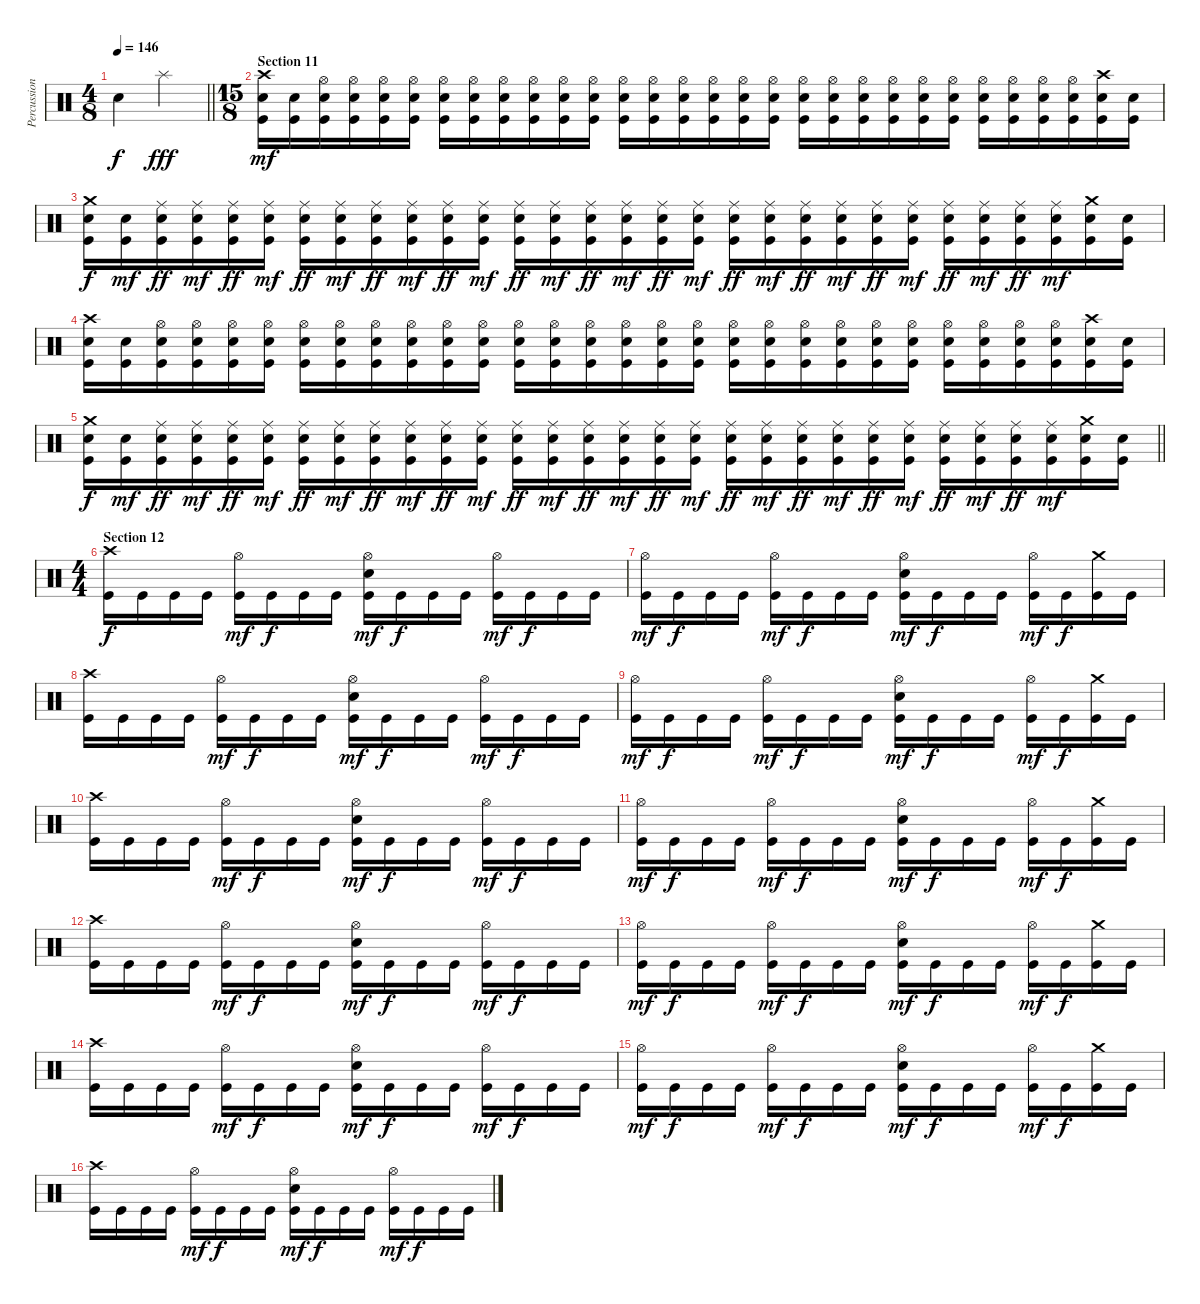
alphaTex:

\track ("Percussion" "Percussion") {instrument percussion}
\staff {score}
\articulation defaults
\ts (4 8)
\tempo 146
\clef neutral
\barLineRight lightlight
\ks c "Snare (hit)"{t}.4{dy f} "Splash (hit)".4{dy fff}
|
\ts (15 8)
\section ("" "Section 11")
("Crash high (hit)" "Electric Snare (hit)" "Kick (hit)").16{dy mf} ("Electric Snare (hit)" "Kick (hit)").16 ("Hi-Hat (open)" "Electric Snare (hit)" "Kick (hit)").16 ("Hi-Hat (open)" "Electric Snare (hit)" "Kick (hit)").16 ("Hi-Hat (open)" "Electric Snare (hit)" "Kick (hit)").16 ("Hi-Hat (open)" "Electric Snare (hit)" "Kick (hit)").16 ("Hi-Hat (open)" "Electric Snare (hit)" "Kick (hit)").16 ("Hi-Hat (open)" "Electric Snare (hit)" "Kick (hit)").16 ("Hi-Hat (open)" "Electric Snare (hit)" "Kick (hit)").16 ("Hi-Hat (open)" "Electric Snare (hit)" "Kick (hit)").16 ("Hi-Hat (open)" "Electric Snare (hit)" "Kick (hit)").16 ("Hi-Hat (open)" "Electric Snare (hit)" "Kick (hit)").16 ("Hi-Hat (open)" "Electric Snare (hit)" "Kick (hit)").16 ("Hi-Hat (open)" "Electric Snare (hit)" "Kick (hit)").16 ("Hi-Hat (open)" "Electric Snare (hit)" "Kick (hit)").16 ("Hi-Hat (open)" "Electric Snare (hit)" "Kick (hit)").16 ("Hi-Hat (open)" "Electric Snare (hit)" "Kick (hit)").16 ("Hi-Hat (open)" "Electric Snare (hit)" "Kick (hit)").16 ("Hi-Hat (open)" "Electric Snare (hit)" "Kick (hit)").16 ("Hi-Hat (open)" "Electric Snare (hit)" "Kick (hit)").16 ("Hi-Hat (open)" "Electric Snare (hit)" "Kick (hit)").16 ("Hi-Hat (open)" "Electric Snare (hit)" "Kick (hit)").16 ("Hi-Hat (open)" "Electric Snare (hit)" "Kick (hit)").16 ("Hi-Hat (open)" "Electric Snare (hit)" "Kick (hit)").16 ("Hi-Hat (open)" "Electric Snare (hit)" "Kick (hit)").16 ("Hi-Hat (open)" "Electric Snare (hit)" "Kick (hit)").16 ("Hi-Hat (open)" "Electric Snare (hit)" "Kick (hit)").16 ("Hi-Hat (open)" "Electric Snare (hit)" "Kick (hit)").16 ("Crash high (hit)" "Electric Snare (hit)" "Kick (hit)").16 ("Electric Snare (hit)" "Kick (hit)").16 |
("Crash medium (hit)" "Electric Snare (hit)" "Kick (hit)").16{dy f} ("Electric Snare (hit)" "Kick (hit)").16{dy mf} ("Ride (middle)" "Electric Snare (hit)" "Kick (hit)").16{dy ff} ("Ride (middle)" "Electric Snare (hit)" "Kick (hit)").16{dy mf} ("Ride (middle)" "Electric Snare (hit)" "Kick (hit)").16{dy ff} ("Ride (middle)" "Electric Snare (hit)" "Kick (hit)").16{dy mf} ("Ride (middle)" "Electric Snare (hit)" "Kick (hit)").16{dy ff} ("Ride (middle)" "Electric Snare (hit)" "Kick (hit)").16{dy mf} ("Ride (middle)" "Electric Snare (hit)" "Kick (hit)").16{dy ff} ("Ride (middle)" "Electric Snare (hit)" "Kick (hit)").16{dy mf} ("Ride (middle)" "Electric Snare (hit)" "Kick (hit)").16{dy ff} ("Ride (middle)" "Electric Snare (hit)" "Kick (hit)").16{dy mf} ("Ride (middle)" "Electric Snare (hit)" "Kick (hit)").16{dy ff} ("Ride (middle)" "Electric Snare (hit)" "Kick (hit)").16{dy mf} ("Ride (middle)" "Electric Snare (hit)" "Kick (hit)").16{dy ff} ("Ride (middle)" "Electric Snare (hit)" "Kick (hit)").16{dy mf} ("Ride (middle)" "Electric Snare (hit)" "Kick (hit)").16{dy ff} ("Ride (middle)" "Electric Snare (hit)" "Kick (hit)").16{dy mf} ("Ride (middle)" "Electric Snare (hit)" "Kick (hit)").16{dy ff} ("Ride (middle)" "Electric Snare (hit)" "Kick (hit)").16{dy mf} ("Ride (middle)" "Electric Snare (hit)" "Kick (hit)").16{dy ff} ("Ride (middle)" "Electric Snare (hit)" "Kick (hit)").16{dy mf} ("Ride (middle)" "Electric Snare (hit)" "Kick (hit)").16{dy ff} ("Ride (middle)" "Electric Snare (hit)" "Kick (hit)").16{dy mf} ("Ride (middle)" "Electric Snare (hit)" "Kick (hit)").16{dy ff} ("Ride (middle)" "Electric Snare (hit)" "Kick (hit)").16{dy mf} ("Ride (middle)" "Electric Snare (hit)" "Kick (hit)").16{dy ff} ("Ride (middle)" "Electric Snare (hit)" "Kick (hit)").16{dy mf} ("Crash medium (hit)" "Electric Snare (hit)" "Kick (hit)").16 ("Electric Snare (hit)" "Kick (hit)").16 |
("Crash high (hit)" "Electric Snare (hit)" "Kick (hit)").16 ("Electric Snare (hit)" "Kick (hit)").16 ("Hi-Hat (open)" "Electric Snare (hit)" "Kick (hit)").16 ("Hi-Hat (open)" "Electric Snare (hit)" "Kick (hit)").16 ("Hi-Hat (open)" "Electric Snare (hit)" "Kick (hit)").16 ("Hi-Hat (open)" "Electric Snare (hit)" "Kick (hit)").16 ("Hi-Hat (open)" "Electric Snare (hit)" "Kick (hit)").16 ("Hi-Hat (open)" "Electric Snare (hit)" "Kick (hit)").16 ("Hi-Hat (open)" "Electric Snare (hit)" "Kick (hit)").16 ("Hi-Hat (open)" "Electric Snare (hit)" "Kick (hit)").16 ("Hi-Hat (open)" "Electric Snare (hit)" "Kick (hit)").16 ("Hi-Hat (open)" "Electric Snare (hit)" "Kick (hit)").16 ("Hi-Hat (open)" "Electric Snare (hit)" "Kick (hit)").16 ("Hi-Hat (open)" "Electric Snare (hit)" "Kick (hit)").16 ("Hi-Hat (open)" "Electric Snare (hit)" "Kick (hit)").16 ("Hi-Hat (open)" "Electric Snare (hit)" "Kick (hit)").16 ("Hi-Hat (open)" "Electric Snare (hit)" "Kick (hit)").16 ("Hi-Hat (open)" "Electric Snare (hit)" "Kick (hit)").16 ("Hi-Hat (open)" "Electric Snare (hit)" "Kick (hit)").16 ("Hi-Hat (open)" "Electric Snare (hit)" "Kick (hit)").16 ("Hi-Hat (open)" "Electric Snare (hit)" "Kick (hit)").16 ("Hi-Hat (open)" "Electric Snare (hit)" "Kick (hit)").16 ("Hi-Hat (open)" "Electric Snare (hit)" "Kick (hit)").16 ("Hi-Hat (open)" "Electric Snare (hit)" "Kick (hit)").16 ("Hi-Hat (open)" "Electric Snare (hit)" "Kick (hit)").16 ("Hi-Hat (open)" "Electric Snare (hit)" "Kick (hit)").16 ("Hi-Hat (open)" "Electric Snare (hit)" "Kick (hit)").16 ("Hi-Hat (open)" "Electric Snare (hit)" "Kick (hit)").16 ("Crash high (hit)" "Electric Snare (hit)" "Kick (hit)").16 ("Electric Snare (hit)" "Kick (hit)").16 |
\barLineRight lightlight
("Crash medium (hit)" "Electric Snare (hit)" "Kick (hit)").16{dy f} ("Electric Snare (hit)" "Kick (hit)").16{dy mf} ("Ride (middle)" "Electric Snare (hit)" "Kick (hit)").16{dy ff} ("Ride (middle)" "Electric Snare (hit)" "Kick (hit)").16{dy mf} ("Ride (middle)" "Electric Snare (hit)" "Kick (hit)").16{dy ff} ("Ride (middle)" "Electric Snare (hit)" "Kick (hit)").16{dy mf} ("Ride (middle)" "Electric Snare (hit)" "Kick (hit)").16{dy ff} ("Ride (middle)" "Electric Snare (hit)" "Kick (hit)").16{dy mf} ("Ride (middle)" "Electric Snare (hit)" "Kick (hit)").16{dy ff} ("Ride (middle)" "Electric Snare (hit)" "Kick (hit)").16{dy mf} ("Ride (middle)" "Electric Snare (hit)" "Kick (hit)").16{dy ff} ("Ride (middle)" "Electric Snare (hit)" "Kick (hit)").16{dy mf} ("Ride (middle)" "Electric Snare (hit)" "Kick (hit)").16{dy ff} ("Ride (middle)" "Electric Snare (hit)" "Kick (hit)").16{dy mf} ("Ride (middle)" "Electric Snare (hit)" "Kick (hit)").16{dy ff} ("Ride (middle)" "Electric Snare (hit)" "Kick (hit)").16{dy mf} ("Ride (middle)" "Electric Snare (hit)" "Kick (hit)").16{dy ff} ("Ride (middle)" "Electric Snare (hit)" "Kick (hit)").16{dy mf} ("Ride (middle)" "Electric Snare (hit)" "Kick (hit)").16{dy ff} ("Ride (middle)" "Electric Snare (hit)" "Kick (hit)").16{dy mf} ("Ride (middle)" "Electric Snare (hit)" "Kick (hit)").16{dy ff} ("Ride (middle)" "Electric Snare (hit)" "Kick (hit)").16{dy mf} ("Ride (middle)" "Electric Snare (hit)" "Kick (hit)").16{dy ff} ("Ride (middle)" "Electric Snare (hit)" "Kick (hit)").16{dy mf} ("Ride (middle)" "Electric Snare (hit)" "Kick (hit)").16{dy ff} ("Ride (middle)" "Electric Snare (hit)" "Kick (hit)").16{dy mf} ("Ride (middle)" "Electric Snare (hit)" "Kick (hit)").16{dy ff} ("Ride (middle)" "Electric Snare (hit)" "Kick (hit)").16{dy mf} ("Crash medium (hit)" "Electric Snare (hit)" "Kick (hit)").16 ("Electric Snare (hit)" "Kick (hit)").16 |
\ts (4 4)
\section ("" "Section 12")
("Crash high (hit)" "Kick (hit)").16{dy f} "Kick (hit)".16 "Kick (hit)".16 "Kick (hit)".16 ("Hi-Hat (open)" "Kick (hit)").16{dy mf} "Kick (hit)".16{dy f} "Kick (hit)".16 "Kick (hit)".16 ("Hi-Hat (open)" "Electric Snare (hit)" "Kick (hit)").16{dy mf} "Kick (hit)".16{dy f} "Kick (hit)".16 "Kick (hit)".16 ("Hi-Hat (open)" "Kick (hit)").16{dy mf} "Kick (hit)".16{dy f} "Kick (hit)".16 "Kick (hit)".16 |
("Hi-Hat (open)" "Kick (hit)").16{dy mf} "Kick (hit)".16{dy f} "Kick (hit)".16 "Kick (hit)".16 ("Hi-Hat (open)" "Kick (hit)").16{dy mf} "Kick (hit)".16{dy f} "Kick (hit)".16 "Kick (hit)".16 ("Hi-Hat (open)" "Electric Snare (hit)" "Kick (hit)").16{dy mf} "Kick (hit)".16{dy f} "Kick (hit)".16 "Kick (hit)".16 ("Hi-Hat (open)" "Kick (hit)").16{dy mf} "Kick (hit)".16{dy f} ("Crash medium (hit)" "Kick (hit)").16 "Kick (hit)".16 |
("Crash high (hit)" "Kick (hit)").16 "Kick (hit)".16 "Kick (hit)".16 "Kick (hit)".16 ("Hi-Hat (open)" "Kick (hit)").16{dy mf} "Kick (hit)".16{dy f} "Kick (hit)".16 "Kick (hit)".16 ("Hi-Hat (open)" "Electric Snare (hit)" "Kick (hit)").16{dy mf} "Kick (hit)".16{dy f} "Kick (hit)".16 "Kick (hit)".16 ("Hi-Hat (open)" "Kick (hit)").16{dy mf} "Kick (hit)".16{dy f} "Kick (hit)".16 "Kick (hit)".16 |
("Hi-Hat (open)" "Kick (hit)").16{dy mf} "Kick (hit)".16{dy f} "Kick (hit)".16 "Kick (hit)".16 ("Hi-Hat (open)" "Kick (hit)").16{dy mf} "Kick (hit)".16{dy f} "Kick (hit)".16 "Kick (hit)".16 ("Hi-Hat (open)" "Electric Snare (hit)" "Kick (hit)").16{dy mf} "Kick (hit)".16{dy f} "Kick (hit)".16 "Kick (hit)".16 ("Hi-Hat (open)" "Kick (hit)").16{dy mf} "Kick (hit)".16{dy f} ("Crash medium (hit)" "Kick (hit)").16 "Kick (hit)".16 |
("Crash high (hit)" "Kick (hit)").16 "Kick (hit)".16 "Kick (hit)".16 "Kick (hit)".16 ("Hi-Hat (open)" "Kick (hit)").16{dy mf} "Kick (hit)".16{dy f} "Kick (hit)".16 "Kick (hit)".16 ("Hi-Hat (open)" "Electric Snare (hit)" "Kick (hit)").16{dy mf} "Kick (hit)".16{dy f} "Kick (hit)".16 "Kick (hit)".16 ("Hi-Hat (open)" "Kick (hit)").16{dy mf} "Kick (hit)".16{dy f} "Kick (hit)".16 "Kick (hit)".16 |
("Hi-Hat (open)" "Kick (hit)").16{dy mf} "Kick (hit)".16{dy f} "Kick (hit)".16 "Kick (hit)".16 ("Hi-Hat (open)" "Kick (hit)").16{dy mf} "Kick (hit)".16{dy f} "Kick (hit)".16 "Kick (hit)".16 ("Hi-Hat (open)" "Electric Snare (hit)" "Kick (hit)").16{dy mf} "Kick (hit)".16{dy f} "Kick (hit)".16 "Kick (hit)".16 ("Hi-Hat (open)" "Kick (hit)").16{dy mf} "Kick (hit)".16{dy f} ("Crash medium (hit)" "Kick (hit)").16 "Kick (hit)".16 |
("Crash high (hit)" "Kick (hit)").16 "Kick (hit)".16 "Kick (hit)".16 "Kick (hit)".16 ("Hi-Hat (open)" "Kick (hit)").16{dy mf} "Kick (hit)".16{dy f} "Kick (hit)".16 "Kick (hit)".16 ("Hi-Hat (open)" "Electric Snare (hit)" "Kick (hit)").16{dy mf} "Kick (hit)".16{dy f} "Kick (hit)".16 "Kick (hit)".16 ("Hi-Hat (open)" "Kick (hit)").16{dy mf} "Kick (hit)".16{dy f} "Kick (hit)".16 "Kick (hit)".16 |
("Hi-Hat (open)" "Kick (hit)").16{dy mf} "Kick (hit)".16{dy f} "Kick (hit)".16 "Kick (hit)".16 ("Hi-Hat (open)" "Kick (hit)").16{dy mf} "Kick (hit)".16{dy f} "Kick (hit)".16 "Kick (hit)".16 ("Hi-Hat (open)" "Electric Snare (hit)" "Kick (hit)").16{dy mf} "Kick (hit)".16{dy f} "Kick (hit)".16 "Kick (hit)".16 ("Hi-Hat (open)" "Kick (hit)").16{dy mf} "Kick (hit)".16{dy f} ("Crash medium (hit)" "Kick (hit)").16 "Kick (hit)".16 |
("Crash high (hit)" "Kick (hit)").16 "Kick (hit)".16 "Kick (hit)".16 "Kick (hit)".16 ("Hi-Hat (open)" "Kick (hit)").16{dy mf} "Kick (hit)".16{dy f} "Kick (hit)".16 "Kick (hit)".16 ("Hi-Hat (open)" "Electric Snare (hit)" "Kick (hit)").16{dy mf} "Kick (hit)".16{dy f} "Kick (hit)".16 "Kick (hit)".16 ("Hi-Hat (open)" "Kick (hit)").16{dy mf} "Kick (hit)".16{dy f} "Kick (hit)".16 "Kick (hit)".16 |
("Hi-Hat (open)" "Kick (hit)").16{dy mf} "Kick (hit)".16{dy f} "Kick (hit)".16 "Kick (hit)".16 ("Hi-Hat (open)" "Kick (hit)").16{dy mf} "Kick (hit)".16{dy f} "Kick (hit)".16 "Kick (hit)".16 ("Hi-Hat (open)" "Electric Snare (hit)" "Kick (hit)").16{dy mf} "Kick (hit)".16{dy f} "Kick (hit)".16 "Kick (hit)".16 ("Hi-Hat (open)" "Kick (hit)").16{dy mf} "Kick (hit)".16{dy f} ("Crash medium (hit)" "Kick (hit)").16 "Kick (hit)".16 |
("Crash high (hit)" "Kick (hit)").16 "Kick (hit)".16 "Kick (hit)".16 "Kick (hit)".16 ("Hi-Hat (open)" "Kick (hit)").16{dy mf} "Kick (hit)".16{dy f} "Kick (hit)".16 "Kick (hit)".16 ("Hi-Hat (open)" "Electric Snare (hit)" "Kick (hit)").16{dy mf} "Kick (hit)".16{dy f} "Kick (hit)".16 "Kick (hit)".16 ("Hi-Hat (open)" "Kick (hit)").16{dy mf} "Kick (hit)".16{dy f} "Kick (hit)".16 "Kick (hit)".16
